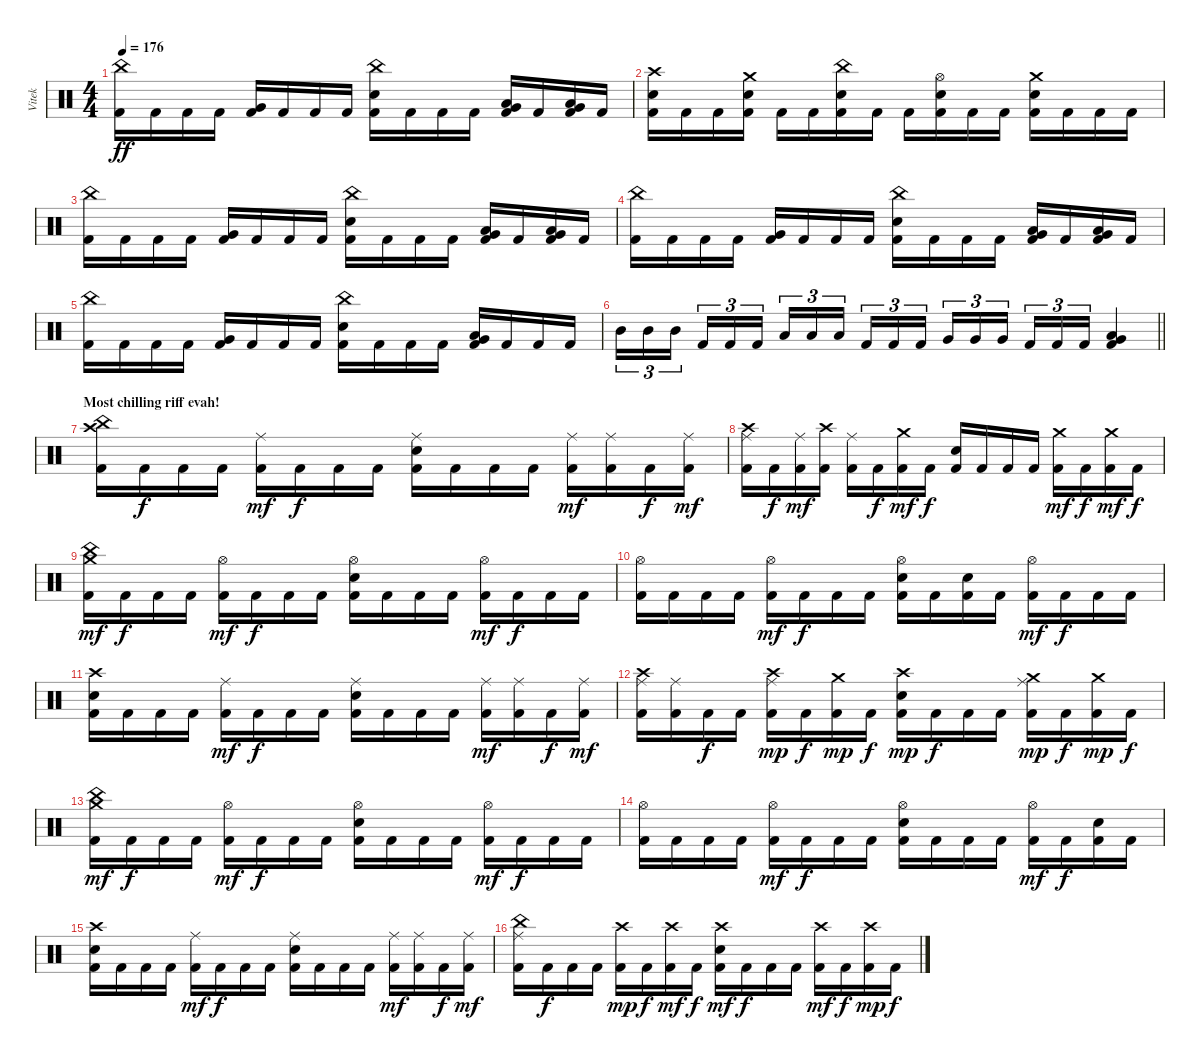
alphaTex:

\track ("Vitek" "Vitek") {instrument percussion}
\staff {score}
\articulation defaults
\ts (4 4)
\tempo 176
\clef neutral
\ks c
("China (hit)" "Kick (hit) 2").16{dy ff} "Kick (hit) 2".16 "Kick (hit) 2".16 "Kick (hit) 2".16 ("Very Low Tom (hit)" "Kick (hit) 2").16 "Kick (hit) 2".16 "Kick (hit) 2".16 "Kick (hit) 2".16 ("China (hit)" "Electric Snare (hit)" "Kick (hit) 2").16 "Kick (hit) 2".16 "Kick (hit) 2".16 "Kick (hit) 2".16 ("Very Low Tom (hit)" "Low Tom (hit)" "Kick (hit) 2").16 "Kick (hit) 2".16 ("Very Low Tom (hit)" "Low Tom (hit)" "Kick (hit) 2").16 "Kick (hit) 2".16 |
("Crash high (hit)" "Electric Snare (hit)" "Kick (hit) 2").16 "Kick (hit) 2".16 "Kick (hit) 2".16 ("Crash medium (hit)" "Electric Snare (hit)" "Kick (hit) 2").16 "Kick (hit) 2".16 "Kick (hit) 2".16 ("China (hit)" "Electric Snare (hit)" "Kick (hit) 2").16 "Kick (hit) 2".16 "Kick (hit) 2".16 ("Hi-Hat (open)" "Electric Snare (hit)" "Kick (hit) 2").16 "Kick (hit) 2".16 "Kick (hit) 2".16 ("Crash medium (hit)" "Electric Snare (hit)" "Kick (hit) 2").16 "Kick (hit) 2".16 "Kick (hit) 2".16 "Kick (hit) 2".16 |
("China (hit)" "Kick (hit) 2").16 "Kick (hit) 2".16 "Kick (hit) 2".16 "Kick (hit) 2".16 ("Very Low Tom (hit)" "Kick (hit) 2").16 "Kick (hit) 2".16 "Kick (hit) 2".16 "Kick (hit) 2".16 ("China (hit)" "Electric Snare (hit)" "Kick (hit) 2").16 "Kick (hit) 2".16 "Kick (hit) 2".16 "Kick (hit) 2".16 ("Very Low Tom (hit)" "Low Tom (hit)" "Kick (hit) 2").16 "Kick (hit) 2".16 ("Very Low Tom (hit)" "Low Tom (hit)" "Kick (hit) 2").16 "Kick (hit) 2".16 |
("China (hit)" "Kick (hit) 2").16 "Kick (hit) 2".16 "Kick (hit) 2".16 "Kick (hit) 2".16 ("Very Low Tom (hit)" "Kick (hit) 2").16 "Kick (hit) 2".16 "Kick (hit) 2".16 "Kick (hit) 2".16 ("China (hit)" "Electric Snare (hit)" "Kick (hit) 2").16 "Kick (hit) 2".16 "Kick (hit) 2".16 "Kick (hit) 2".16 ("Very Low Tom (hit)" "Low Tom (hit)" "Kick (hit) 2").16 "Kick (hit) 2".16 ("Very Low Tom (hit)" "Low Tom (hit)" "Kick (hit) 2").16 "Kick (hit) 2".16 |
("China (hit)" "Kick (hit) 2").16 "Kick (hit) 2".16 "Kick (hit) 2".16 "Kick (hit) 2".16 ("Very Low Tom (hit)" "Kick (hit) 2").16 "Kick (hit) 2".16 "Kick (hit) 2".16 "Kick (hit) 2".16 ("China (hit)" "Electric Snare (hit)" "Kick (hit) 2").16 "Kick (hit) 2".16 "Kick (hit) 2".16 "Kick (hit) 2".16 ("Very Low Tom (hit)" "Low Tom (hit)" "Kick (hit) 2").16 "Kick (hit) 2".16 "Kick (hit) 2".16 "Kick (hit) 2".16 |
\barLineRight lightlight "Mid Tom (hit)".16{tu (3 2)} "Mid Tom (hit)".16{tu (3 2)} "Mid Tom (hit)".16{tu (3 2) beam splitsecondary} "Kick (hit) 2".16{tu (3 2)} "Kick (hit) 2".16{tu (3 2)} "Kick (hit) 2".16{tu (3 2)} "Low Tom (hit)".16{tu (3 2)} "Low Tom (hit)".16{tu (3 2)} "Low Tom (hit)".16{tu (3 2) beam splitsecondary} "Kick (hit) 2".16{tu (3 2)} "Kick (hit) 2".16{tu (3 2)} "Kick (hit) 2".16{tu (3 2)} "Very Low Tom (hit)".16{tu (3 2)} "Very Low Tom (hit)".16{tu (3 2)} "Very Low Tom (hit)".16{tu (3 2) beam splitsecondary} "Kick (hit) 2".16{tu (3 2)} "Kick (hit) 2".16{tu (3 2)} "Kick (hit) 2".16{tu (3 2)}
("Very Low Tom (hit)" "Low Floor Tom (hit)" "Kick (hit) 2").4 |
\section ("" "Most chilling riff evah!")
("Crash high (hit)" "China (hit)" "Kick (hit) 2").16 "Kick (hit) 2".16{dy f} "Kick (hit) 2".16 "Kick (hit) 2".16 ("Ride (middle)" "Kick (hit) 2").16{dy mf} "Kick (hit) 2".16{dy f} "Kick (hit) 2".16 "Kick (hit) 2".16 ("Ride (middle)" "Electric Snare (hit)" "Kick (hit) 2").16 "Kick (hit) 2".16 "Kick (hit) 2".16 "Kick (hit) 2".16 ("Ride (middle)" "Kick (hit) 2").16{dy mf} ("Ride (middle)" "Kick (hit) 2").16 "Kick (hit) 2".16{dy f} ("Ride (middle)" "Kick (hit) 2").16{dy mf} |
("Crash high (hit)" "Ride (middle)" "Kick (hit) 2").16 "Kick (hit) 2".16{dy f} ("Ride (middle)" "Kick (hit) 2").16{dy mf} ("Crash high (hit)" "Kick (hit) 2").16 ("Ride (middle)" "Kick (hit) 2").16 "Kick (hit) 2".16{dy f} ("Crash medium (hit)" "Kick (hit) 2").16{dy mf} "Kick (hit) 2".16{dy f} ("Electric Snare (hit)" "Kick (hit) 2").16 "Kick (hit) 2".16 "Kick (hit) 2".16 "Kick (hit) 2".16 ("Crash medium (hit)" "Kick (hit) 2").16{dy mf} "Kick (hit) 2".16{dy f} ("Crash medium (hit)" "Kick (hit) 2").16{dy mf} "Kick (hit) 2".16{dy f} |
("China (hit)" "Crash medium (hit)" "Kick (hit) 2").16{dy mf} "Kick (hit) 2".16{dy f} "Kick (hit) 2".16 "Kick (hit) 2".16 ("Hi-Hat (open)" "Kick (hit) 2").16{dy mf} "Kick (hit) 2".16{dy f} "Kick (hit) 2".16 "Kick (hit) 2".16 ("Hi-Hat (open)" "Electric Snare (hit)" "Kick (hit) 2").16 "Kick (hit) 2".16 "Kick (hit) 2".16 "Kick (hit) 2".16 ("Hi-Hat (open)" "Kick (hit) 2").16{dy mf} "Kick (hit) 2".16{dy f} "Kick (hit) 2".16 "Kick (hit) 2".16 |
("Hi-Hat (open)" "Kick (hit) 2").16 "Kick (hit) 2".16 "Kick (hit) 2".16 "Kick (hit) 2".16 ("Hi-Hat (open)" "Kick (hit) 2").16{dy mf} "Kick (hit) 2".16{dy f} "Kick (hit) 2".16 "Kick (hit) 2".16 ("Hi-Hat (open)" "Electric Snare (hit)" "Kick (hit) 2").16 "Kick (hit) 2".16 ("Electric Snare (hit)" "Kick (hit) 2").16 "Kick (hit) 2".16 ("Hi-Hat (open)" "Kick (hit) 2").16{dy mf} "Kick (hit) 2".16{dy f} "Kick (hit) 2".16 "Kick (hit) 2".16 |
("Crash high (hit)" "Electric Snare (hit)" "Kick (hit) 2").16 "Kick (hit) 2".16 "Kick (hit) 2".16 "Kick (hit) 2".16 ("Ride (middle)" "Kick (hit) 2").16{dy mf} "Kick (hit) 2".16{dy f} "Kick (hit) 2".16 "Kick (hit) 2".16 ("Ride (middle)" "Electric Snare (hit)" "Kick (hit) 2").16 "Kick (hit) 2".16 "Kick (hit) 2".16 "Kick (hit) 2".16 ("Ride (middle)" "Kick (hit) 2").16{dy mf} ("Ride (middle)" "Kick (hit) 2").16 "Kick (hit) 2".16{dy f} ("Ride (middle)" "Kick (hit) 2").16{dy mf} |
("Crash high (hit)" "Ride (middle)" "Kick (hit) 2").16 ("Ride (middle)" "Kick (hit) 2").16 "Kick (hit) 2".16{dy f} "Kick (hit) 2".16 ("Crash high (hit)" "Ride (middle)" "Kick (hit) 2").16{dy mp} "Kick (hit) 2".16{dy f} ("Crash medium (hit)" "Kick (hit) 2").16{dy mp} "Kick (hit) 2".16{dy f} ("Crash high (hit)" "Electric Snare (hit)" "Kick (hit) 2").16{dy mp} "Kick (hit) 2".16{dy f} "Kick (hit) 2".16 "Kick (hit) 2".16 ("Crash medium (hit)" "Ride (middle)" "Kick (hit) 2").16{dy mp} "Kick (hit) 2".16{dy f} ("Crash medium (hit)" "Kick (hit) 2").16{dy mp} "Kick (hit) 2".16{dy f} |
("China (hit)" "Crash medium (hit)" "Kick (hit) 2").16{dy mf} "Kick (hit) 2".16{dy f} "Kick (hit) 2".16 "Kick (hit) 2".16 ("Hi-Hat (open)" "Kick (hit) 2").16{dy mf} "Kick (hit) 2".16{dy f} "Kick (hit) 2".16 "Kick (hit) 2".16 ("Hi-Hat (open)" "Electric Snare (hit)" "Kick (hit) 2").16 "Kick (hit) 2".16 "Kick (hit) 2".16 "Kick (hit) 2".16 ("Hi-Hat (open)" "Kick (hit) 2").16{dy mf} "Kick (hit) 2".16{dy f} "Kick (hit) 2".16 "Kick (hit) 2".16 |
("Hi-Hat (open)" "Kick (hit) 2").16 "Kick (hit) 2".16 "Kick (hit) 2".16 "Kick (hit) 2".16 ("Hi-Hat (open)" "Kick (hit) 2").16{dy mf} "Kick (hit) 2".16{dy f} "Kick (hit) 2".16 "Kick (hit) 2".16 ("Hi-Hat (open)" "Electric Snare (hit)" "Kick (hit) 2").16 "Kick (hit) 2".16 "Kick (hit) 2".16 "Kick (hit) 2".16 ("Hi-Hat (open)" "Kick (hit) 2").16{dy mf} "Kick (hit) 2".16{dy f} ("Electric Snare (hit)" "Kick (hit) 2").16 "Kick (hit) 2".16 |
("Crash high (hit)" "Electric Snare (hit)" "Kick (hit) 2").16 "Kick (hit) 2".16 "Kick (hit) 2".16 "Kick (hit) 2".16 ("Ride (middle)" "Kick (hit) 2").16{dy mf} "Kick (hit) 2".16{dy f} "Kick (hit) 2".16 "Kick (hit) 2".16 ("Ride (middle)" "Electric Snare (hit)" "Kick (hit) 2").16 "Kick (hit) 2".16 "Kick (hit) 2".16 "Kick (hit) 2".16 ("Ride (middle)" "Kick (hit) 2").16{dy mf} ("Ride (middle)" "Kick (hit) 2").16 "Kick (hit) 2".16{dy f} ("Ride (middle)" "Kick (hit) 2").16{dy mf} |
("China (hit)" "Ride (middle)" "Kick (hit) 2").16 "Kick (hit) 2".16{dy f} "Kick (hit) 2".16 "Kick (hit) 2".16 ("Crash high (hit)" "Kick (hit) 2").16{dy mp} "Kick (hit) 2".16{dy f} ("Crash high (hit)" "Kick (hit) 2").16{dy mf} "Kick (hit) 2".16{dy f} ("Crash high (hit)" "Electric Snare (hit)" "Kick (hit) 2").16{dy mf} "Kick (hit) 2".16{dy f} "Kick (hit) 2".16 "Kick (hit) 2".16 ("Crash high (hit)" "Kick (hit) 2").16{dy mf} "Kick (hit) 2".16{dy f} ("Crash high (hit)" "Kick (hit) 2").16{dy mp} "Kick (hit) 2".16{dy f}
